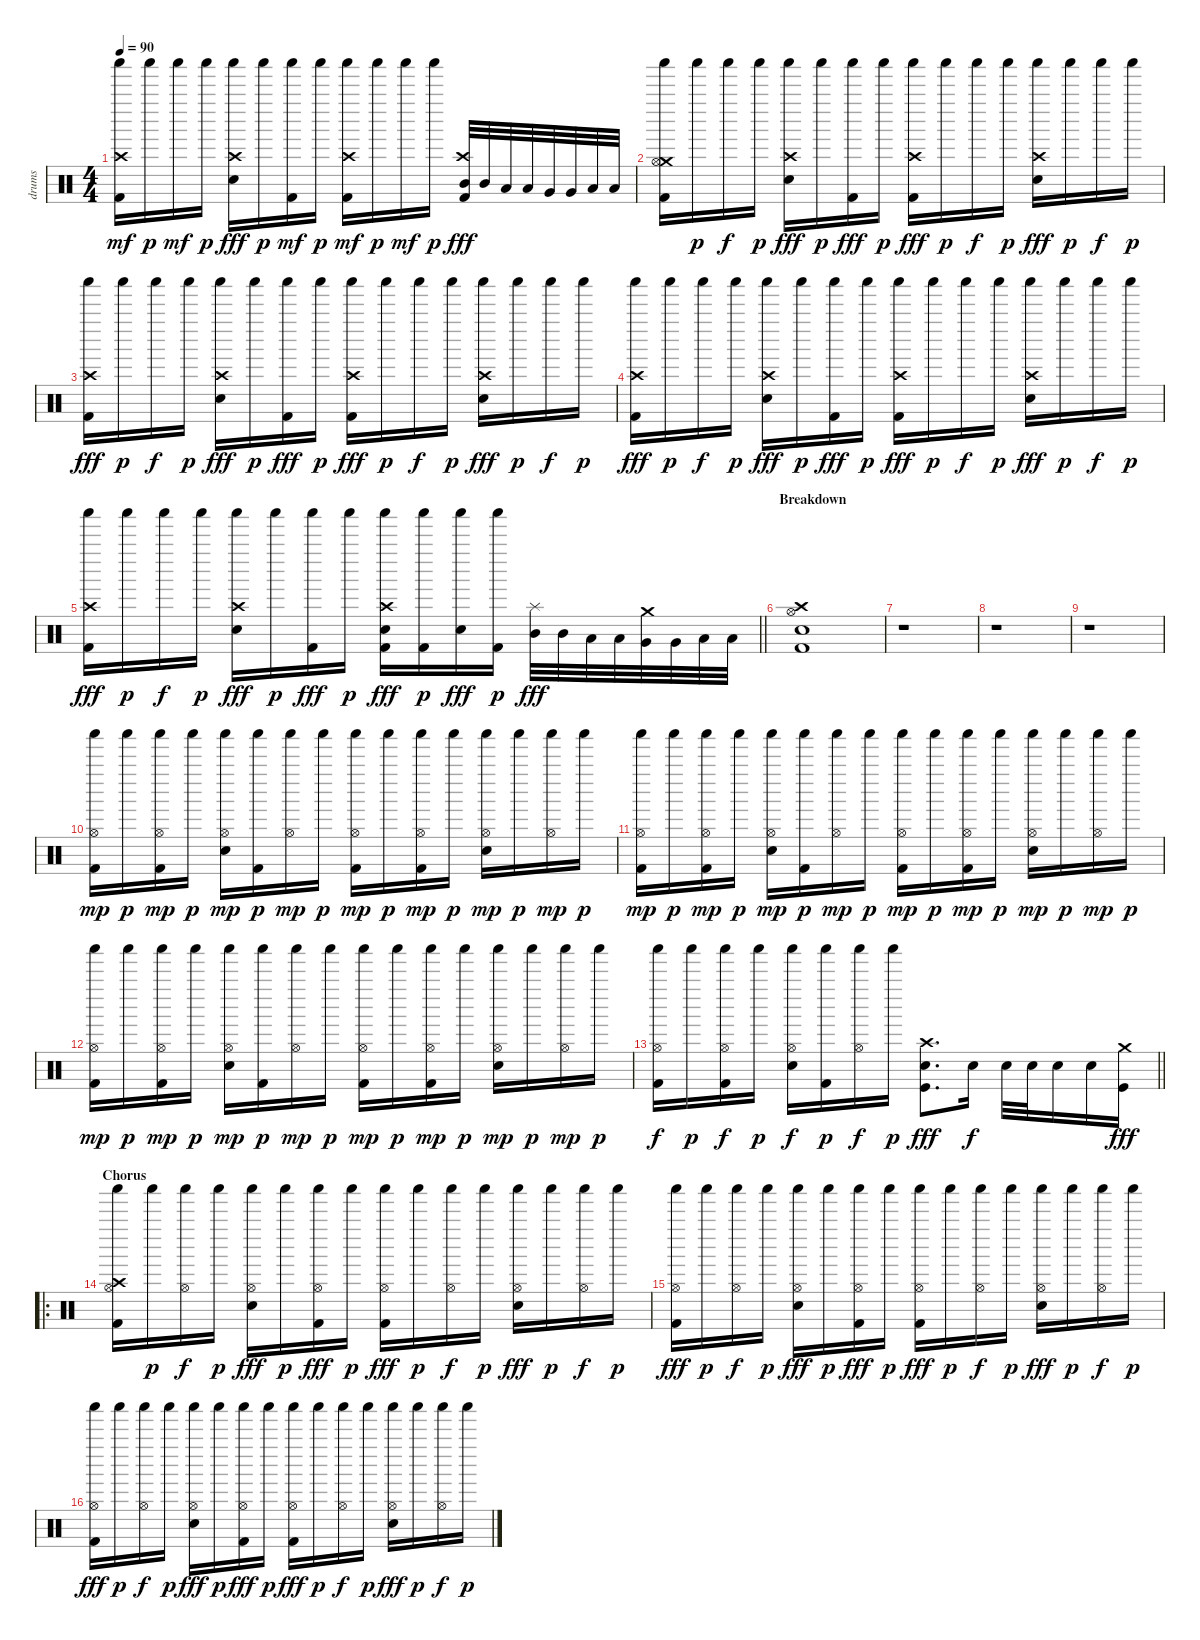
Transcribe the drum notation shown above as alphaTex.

\track ("drums" "drums") {instrument percussion}
\staff {score}
\articulation defaults
\ts (4 4)
\tempo 90
\clef neutral
\ks c
("Kick (hit) 2" "Crash high (hit)" "Shaker (hit)").16{dy mf} "Shaker (hit)".16{dy p} "Shaker (hit)".16{dy mf} "Shaker (hit)".16{dy p} ("Crash high (hit)" "Shaker (hit)" "Snare (hit) 2").16{dy fff} "Shaker (hit)".16{dy p} ("Kick (hit) 2" "Shaker (hit)").16{dy mf} "Shaker (hit)".16{dy p} ("Kick (hit) 2" "Crash high (hit)" "Shaker (hit)").16{dy mf} "Shaker (hit)".16{dy p} "Shaker (hit)".16{dy mf} "Shaker (hit)".16{dy p} ("Kick (hit) 2" "Crash high (hit)" "Mid Tom (hit)").32{dy fff} "Mid Tom (hit)".32 "Low Tom (hit)".32 "Low Tom (hit)".32 "Very Low Tom (hit)".32 "Very Low Tom (hit)".32 "Low Floor Tom (hit)".32 "Low Floor Tom (hit)".32 |
("Kick (hit) 2" "Crash medium (hit)" "Shaker (hit)" "Hi-Hat (open)").16 "Shaker (hit)".16{dy p} "Shaker (hit)".16{dy f} "Shaker (hit)".16{dy p} ("Crash high (hit)" "Shaker (hit)" "Snare (hit) 2").16{dy fff} "Shaker (hit)".16{dy p} ("Kick (hit) 2" "Shaker (hit)").16{dy fff} "Shaker (hit)".16{dy p} ("Kick (hit) 2" "Crash high (hit)" "Shaker (hit)").16{dy fff} "Shaker (hit)".16{dy p} "Shaker (hit)".16{dy f} "Shaker (hit)".16{dy p} ("Crash high (hit)" "Shaker (hit)" "Snare (hit) 2").16{dy fff} "Shaker (hit)".16{dy p} "Shaker (hit)".16{dy f} "Shaker (hit)".16{dy p} |
("Kick (hit) 2" "Crash high (hit)" "Shaker (hit)").16{dy fff} "Shaker (hit)".16{dy p} "Shaker (hit)".16{dy f} "Shaker (hit)".16{dy p} ("Crash high (hit)" "Shaker (hit)" "Snare (hit) 2").16{dy fff} "Shaker (hit)".16{dy p} ("Kick (hit) 2" "Shaker (hit)").16{dy fff} "Shaker (hit)".16{dy p} ("Kick (hit) 2" "Crash high (hit)" "Shaker (hit)").16{dy fff} "Shaker (hit)".16{dy p} "Shaker (hit)".16{dy f} "Shaker (hit)".16{dy p} ("Crash high (hit)" "Shaker (hit)" "Snare (hit) 2").16{dy fff} "Shaker (hit)".16{dy p} "Shaker (hit)".16{dy f} "Shaker (hit)".16{dy p} |
("Kick (hit) 2" "Crash high (hit)" "Shaker (hit)").16{dy fff} "Shaker (hit)".16{dy p} "Shaker (hit)".16{dy f} "Shaker (hit)".16{dy p} ("Crash high (hit)" "Shaker (hit)" "Snare (hit) 2").16{dy fff} "Shaker (hit)".16{dy p} ("Kick (hit) 2" "Shaker (hit)").16{dy fff} "Shaker (hit)".16{dy p} ("Kick (hit) 2" "Crash high (hit)" "Shaker (hit)").16{dy fff} "Shaker (hit)".16{dy p} "Shaker (hit)".16{dy f} "Shaker (hit)".16{dy p} ("Crash high (hit)" "Shaker (hit)" "Snare (hit) 2").16{dy fff} "Shaker (hit)".16{dy p} "Shaker (hit)".16{dy f} "Shaker (hit)".16{dy p} |
\barLineRight lightlight
("Kick (hit) 2" "Crash high (hit)" "Shaker (hit)").16{dy fff} "Shaker (hit)".16{dy p} "Shaker (hit)".16{dy f} "Shaker (hit)".16{dy p} ("Crash high (hit)" "Shaker (hit)" "Snare (hit) 2").16{dy fff} "Shaker (hit)".16{dy p} ("Kick (hit) 2" "Shaker (hit)").16{dy fff} "Shaker (hit)".16{dy p} ("Kick (hit) 2" "Crash high (hit)" "Shaker (hit)" "Snare (hit) 2").16{dy fff} ("Kick (hit) 2" "Shaker (hit)").16{dy p} ("Shaker (hit)" "Snare (hit) 2").16{dy fff} ("Kick (hit) 2" "Shaker (hit)").16{dy p} ("Splash (hit)" "Mid Tom (hit)").32{dy fff} "Mid Tom (hit)".32 "Low Tom (hit)".32 "Low Tom (hit)".32 ("Crash medium (hit)" "Very Low Tom (hit)").32 "Very Low Tom (hit)".32 "Low Floor Tom (hit)".32 "Low Floor Tom (hit)".32 |
\section ("" "Breakdown")
("Kick (hit) 2" "Crash high (hit)" "Hi-Hat (open)" "Snare (hit) 2").1 |
r.1 |
r.1 |
r.1 |
("Kick (hit) 2" "Shaker (hit)" "Hi-Hat (open)").16{dy mp} "Shaker (hit)".16{dy p} ("Kick (hit) 2" "Shaker (hit)" "Hi-Hat (open)").16{dy mp} "Shaker (hit)".16{dy p} ("Shaker (hit)" "Hi-Hat (open)" "Snare (hit) 2").16{dy mp} ("Kick (hit) 2" "Shaker (hit)").16{dy p} ("Shaker (hit)" "Hi-Hat (open)").16{dy mp} "Shaker (hit)".16{dy p} ("Kick (hit) 2" "Shaker (hit)" "Hi-Hat (open)").16{dy mp} "Shaker (hit)".16{dy p} ("Kick (hit) 2" "Shaker (hit)" "Hi-Hat (open)").16{dy mp} "Shaker (hit)".16{dy p} ("Shaker (hit)" "Hi-Hat (open)" "Snare (hit) 2").16{dy mp} "Shaker (hit)".16{dy p} ("Shaker (hit)" "Hi-Hat (open)").16{dy mp} "Shaker (hit)".16{dy p} |
("Kick (hit) 2" "Shaker (hit)" "Hi-Hat (open)").16{dy mp} "Shaker (hit)".16{dy p} ("Kick (hit) 2" "Shaker (hit)" "Hi-Hat (open)").16{dy mp} "Shaker (hit)".16{dy p} ("Shaker (hit)" "Hi-Hat (open)" "Snare (hit) 2").16{dy mp} ("Kick (hit) 2" "Shaker (hit)").16{dy p} ("Shaker (hit)" "Hi-Hat (open)").16{dy mp} "Shaker (hit)".16{dy p} ("Kick (hit) 2" "Shaker (hit)" "Hi-Hat (open)").16{dy mp} "Shaker (hit)".16{dy p} ("Kick (hit) 2" "Shaker (hit)" "Hi-Hat (open)").16{dy mp} "Shaker (hit)".16{dy p} ("Shaker (hit)" "Hi-Hat (open)" "Snare (hit) 2").16{dy mp} "Shaker (hit)".16{dy p} ("Shaker (hit)" "Hi-Hat (open)").16{dy mp} "Shaker (hit)".16{dy p} |
("Kick (hit) 2" "Shaker (hit)" "Hi-Hat (open)").16{dy mp} "Shaker (hit)".16{dy p} ("Kick (hit) 2" "Shaker (hit)" "Hi-Hat (open)").16{dy mp} "Shaker (hit)".16{dy p} ("Shaker (hit)" "Hi-Hat (open)" "Snare (hit) 2").16{dy mp} ("Kick (hit) 2" "Shaker (hit)").16{dy p} ("Shaker (hit)" "Hi-Hat (open)").16{dy mp} "Shaker (hit)".16{dy p} ("Kick (hit) 2" "Shaker (hit)" "Hi-Hat (open)").16{dy mp} "Shaker (hit)".16{dy p} ("Kick (hit) 2" "Shaker (hit)" "Hi-Hat (open)").16{dy mp} "Shaker (hit)".16{dy p} ("Shaker (hit)" "Hi-Hat (open)" "Snare (hit) 2").16{dy mp} "Shaker (hit)".16{dy p} ("Shaker (hit)" "Hi-Hat (open)").16{dy mp} "Shaker (hit)".16{dy p} |
\barLineRight lightlight
("Kick (hit) 2" "Shaker (hit)" "Hi-Hat (open)").16{dy f} "Shaker (hit)".16{dy p} ("Kick (hit) 2" "Shaker (hit)" "Hi-Hat (open)").16{dy f} "Shaker (hit)".16{dy p} ("Shaker (hit)" "Hi-Hat (open)" "Snare (hit) 2").16{dy f} ("Kick (hit) 2" "Shaker (hit)").16{dy p} ("Shaker (hit)" "Hi-Hat (open)").16{dy f} "Shaker (hit)".16{dy p} ("Kick (hit)" "Crash high (hit)" "Electric Snare (hit)").8{d dy fff} "Electric Snare (hit)".16{dy f} "Electric Snare (hit)".32 "Electric Snare (hit)".32 "Electric Snare (hit)".16 "Electric Snare (hit)".16 ("Kick (hit)" "Crash medium (hit)").16{dy fff} |
\ro
\section ("" "Chorus")
("Kick (hit) 2" "Crash high (hit)" "Shaker (hit)" "Hi-Hat (open)").16 "Shaker (hit)".16{dy p} ("Shaker (hit)" "Hi-Hat (open)").16{dy f} "Shaker (hit)".16{dy p} ("Shaker (hit)" "Hi-Hat (open)" "Snare (hit) 2").16{dy fff} "Shaker (hit)".16{dy p} ("Kick (hit) 2" "Shaker (hit)" "Hi-Hat (open)").16{dy fff} "Shaker (hit)".16{dy p} ("Kick (hit) 2" "Shaker (hit)" "Hi-Hat (open)").16{dy fff} "Shaker (hit)".16{dy p} ("Shaker (hit)" "Hi-Hat (open)").16{dy f} "Shaker (hit)".16{dy p} ("Shaker (hit)" "Hi-Hat (open)" "Snare (hit) 2").16{dy fff} "Shaker (hit)".16{dy p} ("Shaker (hit)" "Hi-Hat (open)").16{dy f} "Shaker (hit)".16{dy p} |
("Kick (hit) 2" "Shaker (hit)" "Hi-Hat (open)").16{dy fff} "Shaker (hit)".16{dy p} ("Shaker (hit)" "Hi-Hat (open)").16{dy f} "Shaker (hit)".16{dy p} ("Shaker (hit)" "Hi-Hat (open)" "Snare (hit) 2").16{dy fff} "Shaker (hit)".16{dy p} ("Kick (hit) 2" "Shaker (hit)" "Hi-Hat (open)").16{dy fff} "Shaker (hit)".16{dy p} ("Kick (hit) 2" "Shaker (hit)" "Hi-Hat (open)").16{dy fff} "Shaker (hit)".16{dy p} ("Shaker (hit)" "Hi-Hat (open)").16{dy f} "Shaker (hit)".16{dy p} ("Shaker (hit)" "Hi-Hat (open)" "Snare (hit) 2").16{dy fff} "Shaker (hit)".16{dy p} ("Shaker (hit)" "Hi-Hat (open)").16{dy f} "Shaker (hit)".16{dy p} |
("Kick (hit) 2" "Shaker (hit)" "Hi-Hat (open)").16{dy fff} "Shaker (hit)".16{dy p} ("Shaker (hit)" "Hi-Hat (open)").16{dy f} "Shaker (hit)".16{dy p} ("Shaker (hit)" "Hi-Hat (open)" "Snare (hit) 2").16{dy fff} "Shaker (hit)".16{dy p} ("Kick (hit) 2" "Shaker (hit)" "Hi-Hat (open)").16{dy fff} "Shaker (hit)".16{dy p} ("Kick (hit) 2" "Shaker (hit)" "Hi-Hat (open)").16{dy fff} "Shaker (hit)".16{dy p} ("Shaker (hit)" "Hi-Hat (open)").16{dy f} "Shaker (hit)".16{dy p} ("Shaker (hit)" "Hi-Hat (open)" "Snare (hit) 2").16{dy fff} "Shaker (hit)".16{dy p} ("Shaker (hit)" "Hi-Hat (open)").16{dy f} "Shaker (hit)".16{dy p}
